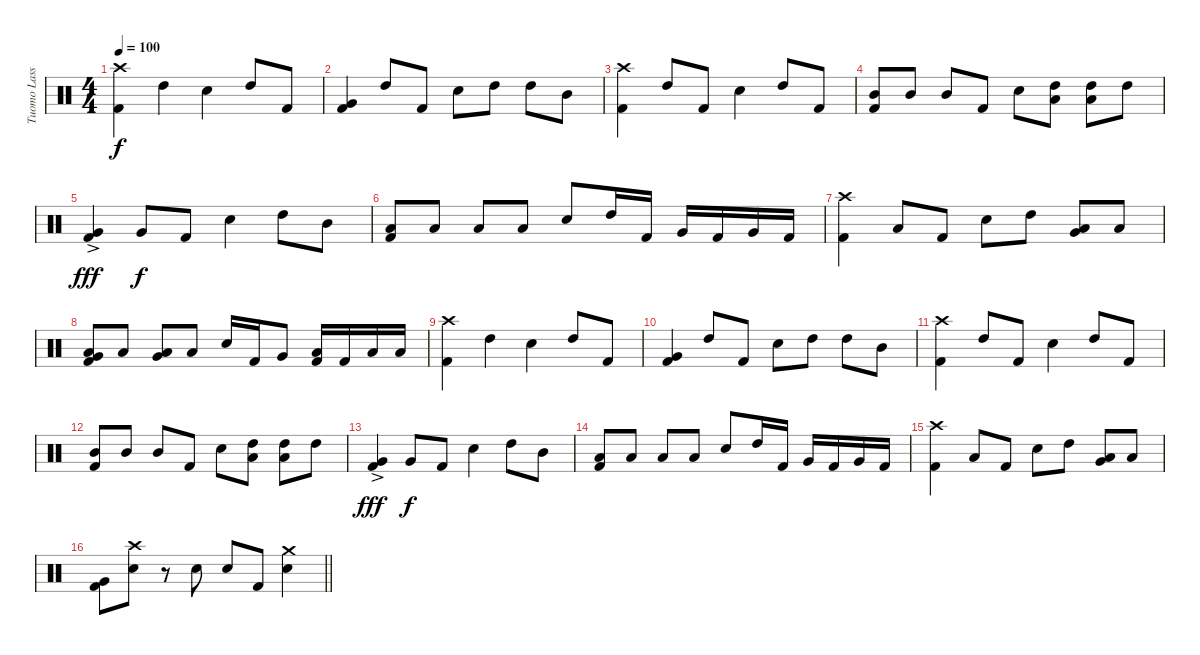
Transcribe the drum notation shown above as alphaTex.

\track ("Tuomo Lassila" "Tuomo Lass") {instrument percussion}
\staff {score}
\articulation defaults
\ts (4 4)
\tempo 100
\clef neutral
\ks c
("Crash high (hit)" "Kick (hit) 2").4{dy f} "High Tom (hit)".4 "Electric Snare (hit)".4 "High Tom (hit)".8 "Kick (hit) 2".8 |
("Very Low Tom (hit)" "Kick (hit) 2").4 "High Tom (hit)".8 "Kick (hit) 2".8 "Electric Snare (hit)".8 "High Tom (hit)".8 "High Tom (hit)".8 "Mid Tom (hit)".8 |
("Crash high (hit)" "Kick (hit) 2").4 "High Tom (hit)".8 "Kick (hit) 2".8 "Electric Snare (hit)".4 "High Tom (hit)".8 "Kick (hit) 2".8 |
("Mid Tom (hit)" "Kick (hit) 2").8 "Mid Tom (hit)".8 "Mid Tom (hit)".8 "Kick (hit) 2".8 "Electric Snare (hit)".8 ("High Tom (hit)" "Low Tom (hit)").8 ("High Tom (hit)" "Low Tom (hit)").8 "High Tom (hit)".8 |
("Very Low Tom (hit)"{ac} "Kick (hit) 2").4{dy fff} "Very Low Tom (hit)".8{dy f} "Kick (hit) 2".8 "Electric Snare (hit)".4 "High Tom (hit)".8 "Mid Tom (hit)".8 |
("Low Tom (hit)" "Kick (hit) 2").8 "Low Tom (hit)".8 "Low Tom (hit)".8 "Low Tom (hit)".8 "Electric Snare (hit)".8 "High Tom (hit)".16 "Kick (hit) 2".16 "Very Low Tom (hit)".16 "Kick (hit) 2".16 "Very Low Tom (hit)".16 "Kick (hit) 2".16 |
("Crash high (hit)" "Kick (hit) 2").4 "Low Tom (hit)".8 "Kick (hit) 2".8 "Electric Snare (hit)".8 "High Tom (hit)".8 ("Low Tom (hit)" "Very Low Tom (hit)").8 "Low Tom (hit)".8 |
("Low Tom (hit)" "Very Low Tom (hit)" "Kick (hit) 2").8 "Low Tom (hit)".8 ("Low Tom (hit)" "Very Low Tom (hit)").8 "Low Tom (hit)".8 "Electric Snare (hit)".16 "Kick (hit) 2".16 "Very Low Tom (hit)".8 ("Low Tom (hit)" "Kick (hit) 2").16 "Kick (hit) 2".16 "Low Tom (hit)".16 "Low Tom (hit)".16 |
("Crash high (hit)" "Kick (hit) 2").4 "High Tom (hit)".4 "Electric Snare (hit)".4 "High Tom (hit)".8 "Kick (hit) 2".8 |
("Very Low Tom (hit)" "Kick (hit) 2").4 "High Tom (hit)".8 "Kick (hit) 2".8 "Electric Snare (hit)".8 "High Tom (hit)".8 "High Tom (hit)".8 "Mid Tom (hit)".8 |
("Crash high (hit)" "Kick (hit) 2").4 "High Tom (hit)".8 "Kick (hit) 2".8 "Electric Snare (hit)".4 "High Tom (hit)".8 "Kick (hit) 2".8 |
("Mid Tom (hit)" "Kick (hit) 2").8 "Mid Tom (hit)".8 "Mid Tom (hit)".8 "Kick (hit) 2".8 "Electric Snare (hit)".8 ("High Tom (hit)" "Low Tom (hit)").8 ("High Tom (hit)" "Low Tom (hit)").8 "High Tom (hit)".8 |
("Very Low Tom (hit)"{ac} "Kick (hit) 2").4{dy fff} "Very Low Tom (hit)".8{dy f} "Kick (hit) 2".8 "Electric Snare (hit)".4 "High Tom (hit)".8 "Mid Tom (hit)".8 |
("Low Tom (hit)" "Kick (hit) 2").8 "Low Tom (hit)".8 "Low Tom (hit)".8 "Low Tom (hit)".8 "Electric Snare (hit)".8 "High Tom (hit)".16 "Kick (hit) 2".16 "Very Low Tom (hit)".16 "Kick (hit) 2".16 "Very Low Tom (hit)".16 "Kick (hit) 2".16 |
("Crash high (hit)" "Kick (hit) 2").4 "Low Tom (hit)".8 "Kick (hit) 2".8 "Electric Snare (hit)".8 "High Tom (hit)".8 ("Low Tom (hit)" "Very Low Tom (hit)").8 "Low Tom (hit)".8 |
\barLineRight lightlight
("Very Low Tom (hit)" "Kick (hit) 2").8 ("Crash high (hit)" "Electric Snare (hit)").8 r.8 "Electric Snare (hit)".8 "Electric Snare (hit)".8 "Kick (hit) 2".8 ("Crash medium (hit)" "Electric Snare (hit)").4
